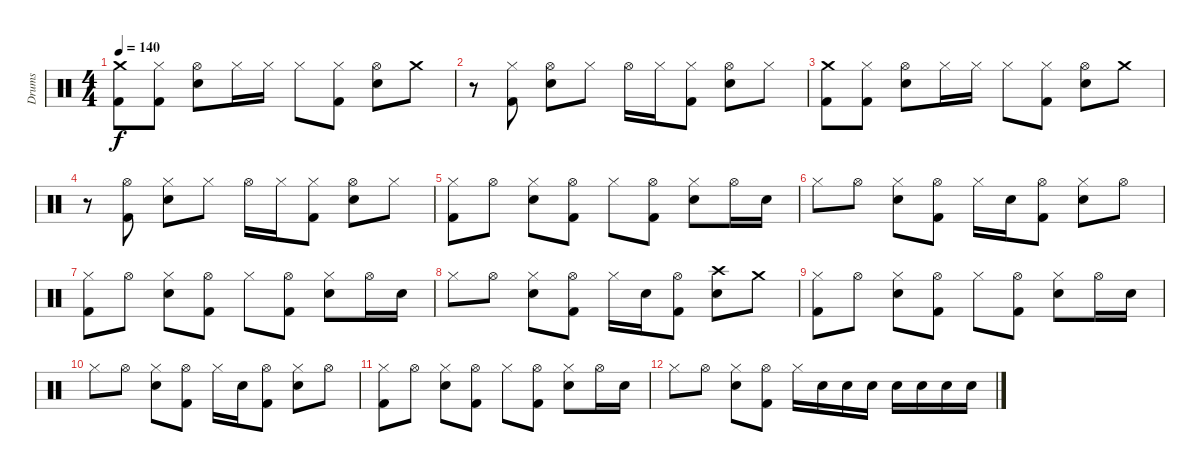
\track ("Drums" "Drums") {instrument percussion}
\staff {score}
\articulation defaults
\ts (4 4)
\tempo 140
\clef neutral
\ks c
("Crash medium (hit)" "Kick (hit) 2").8{dy f} ("Hi-Hat (closed)" "Kick (hit) 2").8 ("Hi-Hat (open)" "Electric Snare (hit)").8 "Hi-Hat (closed)".16 "Hi-Hat (closed)".16 "Hi-Hat (closed)".8 ("Hi-Hat (closed)" "Kick (hit) 2").8 ("Hi-Hat (open)" "Electric Snare (hit)").8 "Crash medium (hit)".8 |
r.8 ("Hi-Hat (closed)" "Kick (hit) 2").8 ("Hi-Hat (open)" "Electric Snare (hit)").8 "Hi-Hat (closed)".8 "Hi-Hat (open)".16 "Hi-Hat (closed)".16 ("Hi-Hat (closed)" "Kick (hit) 2").8 ("Hi-Hat (open)" "Electric Snare (hit)").8 "Hi-Hat (closed)".8 |
("Crash medium (hit)" "Kick (hit) 2").8 ("Hi-Hat (closed)" "Kick (hit) 2").8 ("Hi-Hat (open)" "Electric Snare (hit)").8 "Hi-Hat (closed)".16 "Hi-Hat (closed)".16 "Hi-Hat (closed)".8 ("Hi-Hat (closed)" "Kick (hit) 2").8 ("Hi-Hat (open)" "Electric Snare (hit)").8 "Crash medium (hit)".8 |
r.8 ("Hi-Hat (open)" "Kick (hit) 2").8 ("Hi-Hat (closed)" "Electric Snare (hit)").8 "Hi-Hat (closed)".8 "Hi-Hat (open)".16 "Hi-Hat (closed)".16 ("Hi-Hat (closed)" "Kick (hit) 2").8 ("Hi-Hat (open)" "Electric Snare (hit)").8 "Hi-Hat (closed)".8 |
("Hi-Hat (closed)" "Kick (hit) 2").8 "Hi-Hat (open)".8 ("Hi-Hat (closed)" "Electric Snare (hit)").8 ("Hi-Hat (open)" "Kick (hit) 2").8 "Hi-Hat (closed)".8 ("Hi-Hat (open)" "Kick (hit) 2").8 ("Hi-Hat (closed)" "Electric Snare (hit)").8 "Hi-Hat (open)".16 "Electric Snare (hit)".16 |
"Hi-Hat (closed)".8 "Hi-Hat (open)".8 ("Hi-Hat (closed)" "Electric Snare (hit)").8 ("Hi-Hat (open)" "Kick (hit) 2").8 "Hi-Hat (closed)".16 "Electric Snare (hit)".16 ("Hi-Hat (open)" "Kick (hit) 2").8 ("Hi-Hat (closed)" "Electric Snare (hit)").8 "Hi-Hat (open)".8 |
("Hi-Hat (closed)" "Kick (hit) 2").8 "Hi-Hat (open)".8 ("Hi-Hat (closed)" "Electric Snare (hit)").8 ("Hi-Hat (open)" "Kick (hit) 2").8 "Hi-Hat (closed)".8 ("Hi-Hat (open)" "Kick (hit) 2").8 ("Hi-Hat (closed)" "Electric Snare (hit)").8 "Hi-Hat (open)".16 "Electric Snare (hit)".16 |
"Hi-Hat (closed)".8 "Hi-Hat (open)".8 ("Hi-Hat (closed)" "Electric Snare (hit)").8 ("Hi-Hat (open)" "Kick (hit) 2").8 "Hi-Hat (closed)".16 "Electric Snare (hit)".16 ("Hi-Hat (open)" "Kick (hit) 2").8 ("Crash high (hit)" "Electric Snare (hit)").8 "Crash medium (hit)".8 |
("Hi-Hat (closed)" "Kick (hit) 2").8 "Hi-Hat (open)".8 ("Hi-Hat (closed)" "Electric Snare (hit)").8 ("Hi-Hat (open)" "Kick (hit) 2").8 "Hi-Hat (closed)".8 ("Hi-Hat (open)" "Kick (hit) 2").8 ("Hi-Hat (closed)" "Electric Snare (hit)").8 "Hi-Hat (open)".16 "Electric Snare (hit)".16 |
"Hi-Hat (closed)".8 "Hi-Hat (open)".8 ("Hi-Hat (closed)" "Electric Snare (hit)").8 ("Hi-Hat (open)" "Kick (hit) 2").8 "Hi-Hat (closed)".16 "Electric Snare (hit)".16 ("Hi-Hat (open)" "Kick (hit) 2").8 ("Hi-Hat (closed)" "Electric Snare (hit)").8 "Hi-Hat (open)".8 |
("Hi-Hat (closed)" "Kick (hit) 2").8 "Hi-Hat (open)".8 ("Hi-Hat (closed)" "Electric Snare (hit)").8 ("Hi-Hat (open)" "Kick (hit) 2").8 "Hi-Hat (closed)".8 ("Hi-Hat (open)" "Kick (hit) 2").8 ("Hi-Hat (closed)" "Electric Snare (hit)").8 "Hi-Hat (open)".16 "Electric Snare (hit)".16 |
"Hi-Hat (closed)".8 "Hi-Hat (open)".8 ("Hi-Hat (closed)" "Electric Snare (hit)").8 ("Hi-Hat (open)" "Kick (hit) 2").8 "Hi-Hat (closed)".16 "Electric Snare (hit)".16 "Electric Snare (hit)".16 "Electric Snare (hit)".16 "Electric Snare (hit)".16 "Electric Snare (hit)".16 "Electric Snare (hit)".16 "Electric Snare (hit)".16
